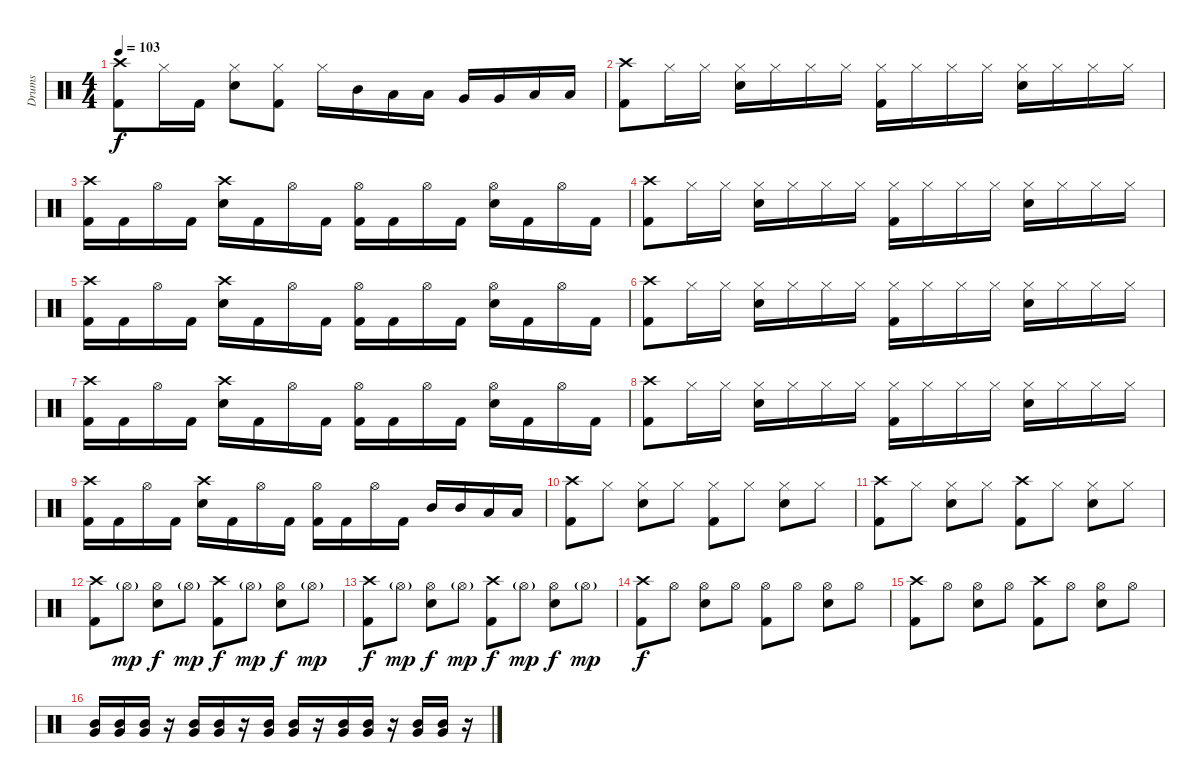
\track ("Drums" "Drums") {instrument percussion}
\staff {score}
\articulation defaults
\ts (4 4)
\tempo 103
\clef neutral
\ks c
("Crash high (hit)" "Kick (hit) 2").8{dy f} "Hi-Hat (closed)".16 "Kick (hit) 2".16 ("Hi-Hat (closed)" "Electric Snare (hit)").8 ("Hi-Hat (closed)" "Kick (hit) 2").8 "Hi-Hat (closed)".16 "Mid Tom (hit)".16 "Low Tom (hit)".16 "Low Tom (hit)".16 "Very Low Tom (hit)".16 "Very Low Tom (hit)".16 "Low Floor Tom (hit)".16 "Low Floor Tom (hit)".16 |
("Crash high (hit)" "Kick (hit) 2").8 "Hi-Hat (closed)".16 "Hi-Hat (closed)".16 ("Hi-Hat (closed)" "Electric Snare (hit)").16 "Hi-Hat (closed)".16 "Hi-Hat (closed)".16 "Hi-Hat (closed)".16 ("Hi-Hat (closed)" "Kick (hit) 2").16 "Hi-Hat (closed)".16 "Hi-Hat (closed)".16 "Hi-Hat (closed)".16 ("Hi-Hat (closed)" "Electric Snare (hit)").16 "Hi-Hat (closed)".16 "Hi-Hat (closed)".16 "Hi-Hat (closed)".16 |
("Crash high (hit)" "Kick (hit) 2").16 "Kick (hit) 2".16 "Hi-Hat (open)".16 "Kick (hit) 2".16 ("Crash high (hit)" "Electric Snare (hit)").16 "Kick (hit) 2".16 "Hi-Hat (open)".16 "Kick (hit) 2".16 ("Hi-Hat (open)" "Kick (hit) 2").16 "Kick (hit) 2".16 "Hi-Hat (open)".16 "Kick (hit) 2".16 ("Hi-Hat (open)" "Electric Snare (hit)").16 "Kick (hit) 2".16 "Hi-Hat (open)".16 "Kick (hit) 2".16 |
("Crash high (hit)" "Kick (hit) 2").8 "Hi-Hat (closed)".16 "Hi-Hat (closed)".16 ("Hi-Hat (closed)" "Electric Snare (hit)").16 "Hi-Hat (closed)".16 "Hi-Hat (closed)".16 "Hi-Hat (closed)".16 ("Hi-Hat (closed)" "Kick (hit) 2").16 "Hi-Hat (closed)".16 "Hi-Hat (closed)".16 "Hi-Hat (closed)".16 ("Hi-Hat (closed)" "Electric Snare (hit)").16 "Hi-Hat (closed)".16 "Hi-Hat (closed)".16 "Hi-Hat (closed)".16 |
("Crash high (hit)" "Kick (hit) 2").16 "Kick (hit) 2".16 "Hi-Hat (open)".16 "Kick (hit) 2".16 ("Crash high (hit)" "Electric Snare (hit)").16 "Kick (hit) 2".16 "Hi-Hat (open)".16 "Kick (hit) 2".16 ("Hi-Hat (open)" "Kick (hit) 2").16 "Kick (hit) 2".16 "Hi-Hat (open)".16 "Kick (hit) 2".16 ("Hi-Hat (open)" "Electric Snare (hit)").16 "Kick (hit) 2".16 "Hi-Hat (open)".16 "Kick (hit) 2".16 |
("Crash high (hit)" "Kick (hit) 2").8 "Hi-Hat (closed)".16 "Hi-Hat (closed)".16 ("Hi-Hat (closed)" "Electric Snare (hit)").16 "Hi-Hat (closed)".16 "Hi-Hat (closed)".16 "Hi-Hat (closed)".16 ("Hi-Hat (closed)" "Kick (hit) 2").16 "Hi-Hat (closed)".16 "Hi-Hat (closed)".16 "Hi-Hat (closed)".16 ("Hi-Hat (closed)" "Electric Snare (hit)").16 "Hi-Hat (closed)".16 "Hi-Hat (closed)".16 "Hi-Hat (closed)".16 |
("Crash high (hit)" "Kick (hit) 2").16 "Kick (hit) 2".16 "Hi-Hat (open)".16 "Kick (hit) 2".16 ("Crash high (hit)" "Electric Snare (hit)").16 "Kick (hit) 2".16 "Hi-Hat (open)".16 "Kick (hit) 2".16 ("Hi-Hat (open)" "Kick (hit) 2").16 "Kick (hit) 2".16 "Hi-Hat (open)".16 "Kick (hit) 2".16 ("Hi-Hat (open)" "Electric Snare (hit)").16 "Kick (hit) 2".16 "Hi-Hat (open)".16 "Kick (hit) 2".16 |
("Crash high (hit)" "Kick (hit) 2").8 "Hi-Hat (closed)".16 "Hi-Hat (closed)".16 ("Hi-Hat (closed)" "Electric Snare (hit)").16 "Hi-Hat (closed)".16 "Hi-Hat (closed)".16 "Hi-Hat (closed)".16 ("Hi-Hat (closed)" "Kick (hit) 2").16 "Hi-Hat (closed)".16 "Hi-Hat (closed)".16 "Hi-Hat (closed)".16 ("Hi-Hat (closed)" "Electric Snare (hit)").16 "Hi-Hat (closed)".16 "Hi-Hat (closed)".16 "Hi-Hat (closed)".16 |
("Crash high (hit)" "Kick (hit) 2").16 "Kick (hit) 2".16 "Hi-Hat (open)".16 "Kick (hit) 2".16 ("Crash high (hit)" "Electric Snare (hit)").16 "Kick (hit) 2".16 "Hi-Hat (open)".16 "Kick (hit) 2".16 ("Hi-Hat (open)" "Kick (hit) 2").16 "Kick (hit) 2".16 "Hi-Hat (open)".16 "Kick (hit) 2".16 "Mid Tom (hit)".16 "Mid Tom (hit)".16 "Low Tom (hit)".16 "Low Tom (hit)".16 |
("Crash high (hit)" "Kick (hit) 2").8 "Hi-Hat (closed)".8 ("Hi-Hat (closed)" "Electric Snare (hit)").8 "Hi-Hat (closed)".8 ("Hi-Hat (closed)" "Kick (hit) 2").8 "Hi-Hat (closed)".8 ("Hi-Hat (closed)" "Electric Snare (hit)").8 "Hi-Hat (closed)".8 |
("Crash high (hit)" "Kick (hit) 2").8 "Hi-Hat (closed)".8 ("Hi-Hat (closed)" "Electric Snare (hit)").8 "Hi-Hat (closed)".8 ("Crash high (hit)" "Kick (hit) 2").8 "Hi-Hat (closed)".8 ("Hi-Hat (closed)" "Electric Snare (hit)").8 "Hi-Hat (closed)".8 |
("Crash high (hit)" "Kick (hit) 2").8 "Hi-Hat (open)"{g}.8{dy mp} ("Hi-Hat (open)" "Electric Snare (hit)").8{dy f} "Hi-Hat (open)"{g}.8{dy mp} ("Crash high (hit)" "Kick (hit) 2").8{dy f} "Hi-Hat (open)"{g}.8{dy mp} ("Hi-Hat (open)" "Electric Snare (hit)").8{dy f} "Hi-Hat (open)"{g}.8{dy mp} |
("Crash high (hit)" "Kick (hit) 2").8{dy f} "Hi-Hat (open)"{g}.8{dy mp} ("Hi-Hat (open)" "Electric Snare (hit)").8{dy f} "Hi-Hat (open)"{g}.8{dy mp} ("Crash high (hit)" "Kick (hit) 2").8{dy f} "Hi-Hat (open)"{g}.8{dy mp} ("Hi-Hat (open)" "Electric Snare (hit)").8{dy f} "Hi-Hat (open)"{g}.8{dy mp} |
("Crash high (hit)" "Kick (hit) 2").8{dy f} "Hi-Hat (open)".8 ("Hi-Hat (open)" "Electric Snare (hit)").8 "Hi-Hat (open)".8 ("Hi-Hat (open)" "Kick (hit) 2").8 "Hi-Hat (open)".8 ("Hi-Hat (open)" "Electric Snare (hit)").8 "Hi-Hat (open)".8 |
("Crash high (hit)" "Kick (hit) 2").8 "Hi-Hat (open)".8 ("Hi-Hat (open)" "Electric Snare (hit)").8 "Hi-Hat (open)".8 ("Crash high (hit)" "Kick (hit) 2").8 "Hi-Hat (open)".8 ("Hi-Hat (open)" "Electric Snare (hit)").8 "Hi-Hat (open)".8 |
("Mid Tom (hit)" "Very Low Tom (hit)").16 ("Mid Tom (hit)" "Very Low Tom (hit)").16 ("Mid Tom (hit)" "Very Low Tom (hit)").16 r.16 ("Mid Tom (hit)" "Very Low Tom (hit)").16 ("Mid Tom (hit)" "Very Low Tom (hit)").16 r.16 ("Mid Tom (hit)" "Very Low Tom (hit)").16 ("Mid Tom (hit)" "Very Low Tom (hit)").16 r.16 ("Mid Tom (hit)" "Very Low Tom (hit)").16 ("Mid Tom (hit)" "Very Low Tom (hit)").16 r.16 ("Mid Tom (hit)" "Very Low Tom (hit)").16 ("Mid Tom (hit)" "Very Low Tom (hit)").16 r.16
